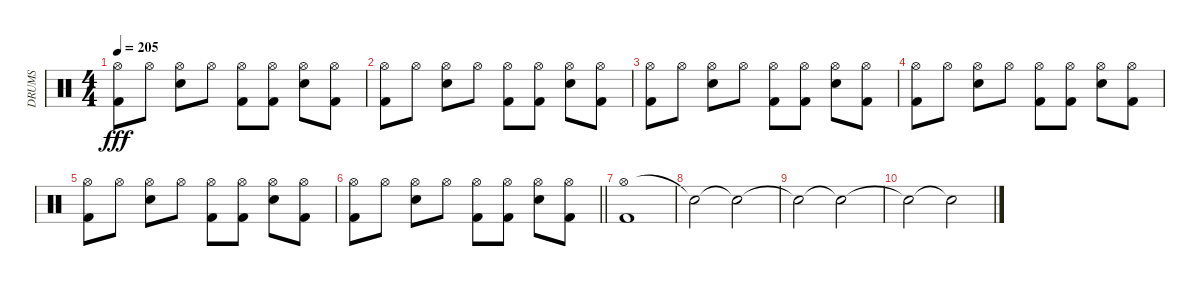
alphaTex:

\track ("DRUMS" "DRUMS") {instrument percussion}
\staff {score}
\articulation defaults
\ts (4 4)
\tempo 205
\clef neutral
\ks c
("Hi-Hat (open)" "Kick (hit) 2").8{dy fff} "Hi-Hat (open)".8 ("Hi-Hat (open)" "Electric Snare (hit)").8 "Hi-Hat (open)".8 ("Hi-Hat (open)" "Kick (hit) 2").8 ("Hi-Hat (open)" "Kick (hit) 2").8 ("Hi-Hat (open)" "Electric Snare (hit)").8 ("Hi-Hat (open)" "Kick (hit) 2").8 |
("Hi-Hat (open)" "Kick (hit) 2").8 "Hi-Hat (open)".8 ("Hi-Hat (open)" "Electric Snare (hit)").8 "Hi-Hat (open)".8 ("Hi-Hat (open)" "Kick (hit) 2").8 ("Hi-Hat (open)" "Kick (hit) 2").8 ("Hi-Hat (open)" "Electric Snare (hit)").8 ("Hi-Hat (open)" "Kick (hit) 2").8 |
("Hi-Hat (open)" "Kick (hit) 2").8 "Hi-Hat (open)".8 ("Hi-Hat (open)" "Electric Snare (hit)").8 "Hi-Hat (open)".8 ("Hi-Hat (open)" "Kick (hit) 2").8 ("Hi-Hat (open)" "Kick (hit) 2").8 ("Hi-Hat (open)" "Electric Snare (hit)").8 ("Hi-Hat (open)" "Kick (hit) 2").8 |
("Hi-Hat (open)" "Kick (hit) 2").8 "Hi-Hat (open)".8 ("Hi-Hat (open)" "Electric Snare (hit)").8 "Hi-Hat (open)".8 ("Hi-Hat (open)" "Kick (hit) 2").8 ("Hi-Hat (open)" "Kick (hit) 2").8 ("Hi-Hat (open)" "Electric Snare (hit)").8 ("Hi-Hat (open)" "Kick (hit) 2").8 |
("Hi-Hat (open)" "Kick (hit) 2").8 "Hi-Hat (open)".8 ("Hi-Hat (open)" "Electric Snare (hit)").8 "Hi-Hat (open)".8 ("Hi-Hat (open)" "Kick (hit) 2").8 ("Hi-Hat (open)" "Kick (hit) 2").8 ("Hi-Hat (open)" "Electric Snare (hit)").8 ("Hi-Hat (open)" "Kick (hit) 2").8 |
\barLineRight lightlight
("Hi-Hat (open)" "Kick (hit) 2").8 "Hi-Hat (open)".8 ("Hi-Hat (open)" "Electric Snare (hit)").8 "Hi-Hat (open)".8 ("Hi-Hat (open)" "Kick (hit) 2").8 ("Hi-Hat (open)" "Kick (hit) 2").8 ("Hi-Hat (open)" "Electric Snare (hit)").8 ("Hi-Hat (open)" "Kick (hit) 2").8 |
("Hi-Hat (open)" "Kick (hit) 2").1 |
"Snare (hit)"{t}.2 "Snare (hit)"{t}.2 |
"Snare (hit)"{t}.2 "Snare (hit)"{t}.2 |
"Snare (hit)"{t}.2 "Snare (hit)"{t}.2
